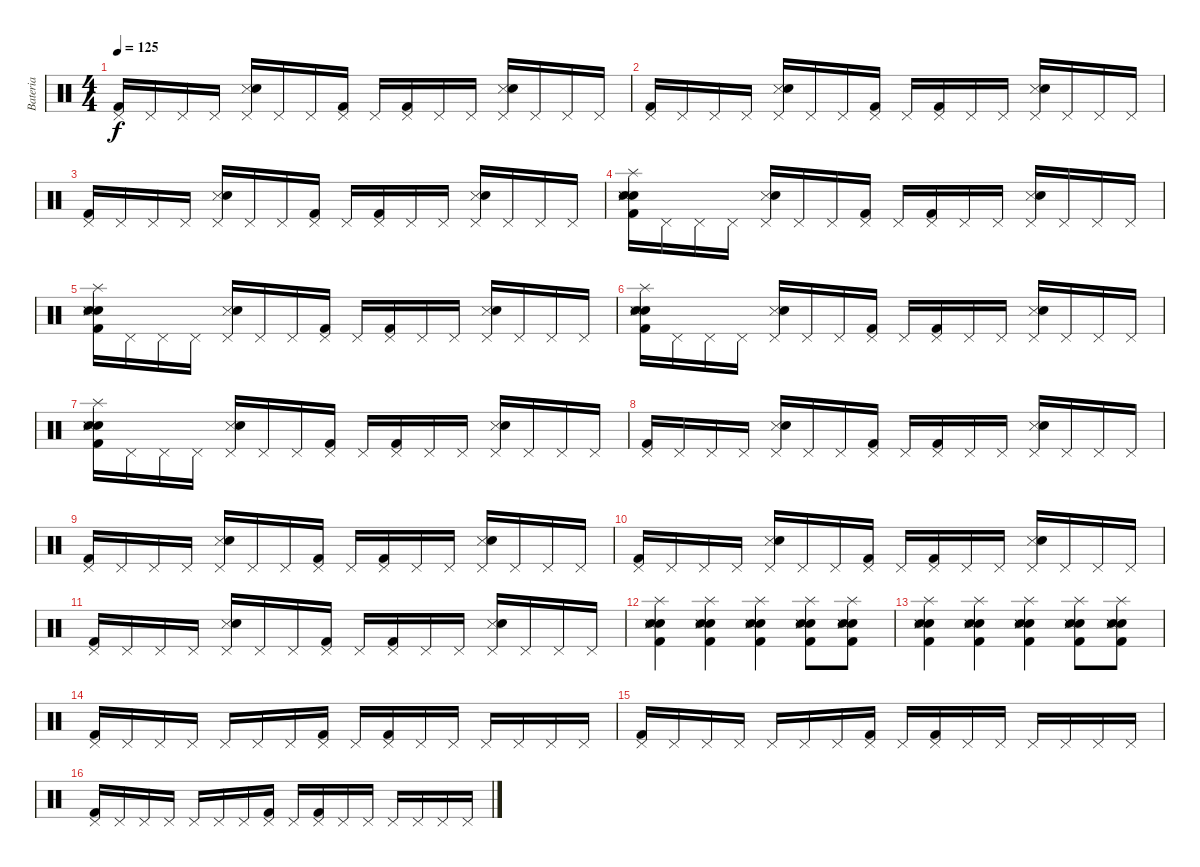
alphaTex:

\track ("Bateria" "Bateria") {instrument percussion}
\staff {score}
\articulation defaults
\ts (4 4)
\tempo 125
\clef neutral
\ks c
("Pedal Hi-Hat (hit)" "Kick (hit) 2").16{dy f} "Pedal Hi-Hat (hit)".16 "Pedal Hi-Hat (hit)".16 "Pedal Hi-Hat (hit)".16 ("Pedal Hi-Hat (hit)" "Snare (side stick) 3" "Snare (hit) 2").16 "Pedal Hi-Hat (hit)".16 "Pedal Hi-Hat (hit)".16 ("Pedal Hi-Hat (hit)" "Kick (hit) 2").16 "Pedal Hi-Hat (hit)".16 ("Pedal Hi-Hat (hit)" "Kick (hit) 2").16 "Pedal Hi-Hat (hit)".16 "Pedal Hi-Hat (hit)".16 ("Pedal Hi-Hat (hit)" "Snare (side stick) 3" "Snare (hit) 2").16 "Pedal Hi-Hat (hit)".16 "Pedal Hi-Hat (hit)".16 "Pedal Hi-Hat (hit)".16 |
("Pedal Hi-Hat (hit)" "Kick (hit) 2").16 "Pedal Hi-Hat (hit)".16 "Pedal Hi-Hat (hit)".16 "Pedal Hi-Hat (hit)".16 ("Pedal Hi-Hat (hit)" "Snare (side stick) 3" "Snare (hit) 2").16 "Pedal Hi-Hat (hit)".16 "Pedal Hi-Hat (hit)".16 ("Pedal Hi-Hat (hit)" "Kick (hit) 2").16 "Pedal Hi-Hat (hit)".16 ("Pedal Hi-Hat (hit)" "Kick (hit) 2").16 "Pedal Hi-Hat (hit)".16 "Pedal Hi-Hat (hit)".16 ("Pedal Hi-Hat (hit)" "Snare (side stick) 3" "Snare (hit) 2").16 "Pedal Hi-Hat (hit)".16 "Pedal Hi-Hat (hit)".16 "Pedal Hi-Hat (hit)".16 |
("Pedal Hi-Hat (hit)" "Kick (hit) 2").16 "Pedal Hi-Hat (hit)".16 "Pedal Hi-Hat (hit)".16 "Pedal Hi-Hat (hit)".16 ("Pedal Hi-Hat (hit)" "Snare (side stick) 3" "Snare (hit) 2").16 "Pedal Hi-Hat (hit)".16 "Pedal Hi-Hat (hit)".16 ("Pedal Hi-Hat (hit)" "Kick (hit) 2").16 "Pedal Hi-Hat (hit)".16 ("Pedal Hi-Hat (hit)" "Kick (hit) 2").16 "Pedal Hi-Hat (hit)".16 "Pedal Hi-Hat (hit)".16 ("Pedal Hi-Hat (hit)" "Snare (side stick) 3" "Snare (hit) 2").16 "Pedal Hi-Hat (hit)".16 "Pedal Hi-Hat (hit)".16 "Pedal Hi-Hat (hit)".16 |
("Splash (hit)" "Snare (hit) 2" "Snare (side stick) 3" "Snare (hit) 2" "Snare (side stick) 3" "Kick (hit) 2").16 "Pedal Hi-Hat (hit)".16 "Pedal Hi-Hat (hit)".16 "Pedal Hi-Hat (hit)".16 ("Pedal Hi-Hat (hit)" "Snare (side stick) 3" "Snare (hit) 2").16 "Pedal Hi-Hat (hit)".16 "Pedal Hi-Hat (hit)".16 ("Pedal Hi-Hat (hit)" "Kick (hit) 2").16 "Pedal Hi-Hat (hit)".16 ("Pedal Hi-Hat (hit)" "Kick (hit) 2").16 "Pedal Hi-Hat (hit)".16 "Pedal Hi-Hat (hit)".16 ("Pedal Hi-Hat (hit)" "Snare (side stick) 3" "Snare (hit) 2").16 "Pedal Hi-Hat (hit)".16 "Pedal Hi-Hat (hit)".16 "Pedal Hi-Hat (hit)".16 |
("Splash (hit)" "Snare (hit) 2" "Snare (side stick) 3" "Snare (hit) 2" "Snare (side stick) 3" "Kick (hit) 2").16 "Pedal Hi-Hat (hit)".16 "Pedal Hi-Hat (hit)".16 "Pedal Hi-Hat (hit)".16 ("Pedal Hi-Hat (hit)" "Snare (side stick) 3" "Snare (hit) 2").16 "Pedal Hi-Hat (hit)".16 "Pedal Hi-Hat (hit)".16 ("Pedal Hi-Hat (hit)" "Kick (hit) 2").16 "Pedal Hi-Hat (hit)".16 ("Pedal Hi-Hat (hit)" "Kick (hit) 2").16 "Pedal Hi-Hat (hit)".16 "Pedal Hi-Hat (hit)".16 ("Pedal Hi-Hat (hit)" "Snare (side stick) 3" "Snare (hit) 2").16 "Pedal Hi-Hat (hit)".16 "Pedal Hi-Hat (hit)".16 "Pedal Hi-Hat (hit)".16 |
("Splash (hit)" "Snare (hit) 2" "Snare (side stick) 3" "Snare (hit) 2" "Snare (side stick) 3" "Kick (hit) 2").16 "Pedal Hi-Hat (hit)".16 "Pedal Hi-Hat (hit)".16 "Pedal Hi-Hat (hit)".16 ("Pedal Hi-Hat (hit)" "Snare (side stick) 3" "Snare (hit) 2").16 "Pedal Hi-Hat (hit)".16 "Pedal Hi-Hat (hit)".16 ("Pedal Hi-Hat (hit)" "Kick (hit) 2").16 "Pedal Hi-Hat (hit)".16 ("Pedal Hi-Hat (hit)" "Kick (hit) 2").16 "Pedal Hi-Hat (hit)".16 "Pedal Hi-Hat (hit)".16 ("Pedal Hi-Hat (hit)" "Snare (side stick) 3" "Snare (hit) 2").16 "Pedal Hi-Hat (hit)".16 "Pedal Hi-Hat (hit)".16 "Pedal Hi-Hat (hit)".16 |
("Splash (hit)" "Snare (hit) 2" "Snare (side stick) 3" "Snare (hit) 2" "Snare (side stick) 3" "Kick (hit) 2").16 "Pedal Hi-Hat (hit)".16 "Pedal Hi-Hat (hit)".16 "Pedal Hi-Hat (hit)".16 ("Pedal Hi-Hat (hit)" "Snare (side stick) 3" "Snare (hit) 2").16 "Pedal Hi-Hat (hit)".16 "Pedal Hi-Hat (hit)".16 ("Pedal Hi-Hat (hit)" "Kick (hit) 2").16 "Pedal Hi-Hat (hit)".16 ("Pedal Hi-Hat (hit)" "Kick (hit) 2").16 "Pedal Hi-Hat (hit)".16 "Pedal Hi-Hat (hit)".16 ("Pedal Hi-Hat (hit)" "Snare (side stick) 3" "Snare (hit) 2").16 "Pedal Hi-Hat (hit)".16 "Pedal Hi-Hat (hit)".16 "Pedal Hi-Hat (hit)".16 |
("Pedal Hi-Hat (hit)" "Kick (hit) 2").16 "Pedal Hi-Hat (hit)".16 "Pedal Hi-Hat (hit)".16 "Pedal Hi-Hat (hit)".16 ("Pedal Hi-Hat (hit)" "Snare (side stick) 3" "Snare (hit) 2").16 "Pedal Hi-Hat (hit)".16 "Pedal Hi-Hat (hit)".16 ("Pedal Hi-Hat (hit)" "Kick (hit) 2").16 "Pedal Hi-Hat (hit)".16 ("Pedal Hi-Hat (hit)" "Kick (hit) 2").16 "Pedal Hi-Hat (hit)".16 "Pedal Hi-Hat (hit)".16 ("Pedal Hi-Hat (hit)" "Snare (side stick) 3" "Snare (hit) 2").16 "Pedal Hi-Hat (hit)".16 "Pedal Hi-Hat (hit)".16 "Pedal Hi-Hat (hit)".16 |
("Pedal Hi-Hat (hit)" "Kick (hit) 2").16 "Pedal Hi-Hat (hit)".16 "Pedal Hi-Hat (hit)".16 "Pedal Hi-Hat (hit)".16 ("Pedal Hi-Hat (hit)" "Snare (side stick) 3" "Snare (hit) 2").16 "Pedal Hi-Hat (hit)".16 "Pedal Hi-Hat (hit)".16 ("Pedal Hi-Hat (hit)" "Kick (hit) 2").16 "Pedal Hi-Hat (hit)".16 ("Pedal Hi-Hat (hit)" "Kick (hit) 2").16 "Pedal Hi-Hat (hit)".16 "Pedal Hi-Hat (hit)".16 ("Pedal Hi-Hat (hit)" "Snare (side stick) 3" "Snare (hit) 2").16 "Pedal Hi-Hat (hit)".16 "Pedal Hi-Hat (hit)".16 "Pedal Hi-Hat (hit)".16 |
("Pedal Hi-Hat (hit)" "Kick (hit) 2").16 "Pedal Hi-Hat (hit)".16 "Pedal Hi-Hat (hit)".16 "Pedal Hi-Hat (hit)".16 ("Pedal Hi-Hat (hit)" "Snare (side stick) 3" "Snare (hit) 2").16 "Pedal Hi-Hat (hit)".16 "Pedal Hi-Hat (hit)".16 ("Pedal Hi-Hat (hit)" "Kick (hit) 2").16 "Pedal Hi-Hat (hit)".16 ("Pedal Hi-Hat (hit)" "Kick (hit) 2").16 "Pedal Hi-Hat (hit)".16 "Pedal Hi-Hat (hit)".16 ("Pedal Hi-Hat (hit)" "Snare (side stick) 3" "Snare (hit) 2").16 "Pedal Hi-Hat (hit)".16 "Pedal Hi-Hat (hit)".16 "Pedal Hi-Hat (hit)".16 |
("Pedal Hi-Hat (hit)" "Kick (hit) 2").16 "Pedal Hi-Hat (hit)".16 "Pedal Hi-Hat (hit)".16 "Pedal Hi-Hat (hit)".16 ("Pedal Hi-Hat (hit)" "Snare (side stick) 3" "Snare (hit) 2").16 "Pedal Hi-Hat (hit)".16 "Pedal Hi-Hat (hit)".16 ("Pedal Hi-Hat (hit)" "Kick (hit) 2").16 "Pedal Hi-Hat (hit)".16 ("Pedal Hi-Hat (hit)" "Kick (hit) 2").16 "Pedal Hi-Hat (hit)".16 "Pedal Hi-Hat (hit)".16 ("Pedal Hi-Hat (hit)" "Snare (side stick) 3" "Snare (hit) 2").16 "Pedal Hi-Hat (hit)".16 "Pedal Hi-Hat (hit)".16 "Pedal Hi-Hat (hit)".16 |
("Splash (hit)" "Snare (hit) 2" "Snare (side stick) 3" "Snare (hit) 2" "Snare (side stick) 3" "Kick (hit) 2").4 ("Splash (hit)" "Snare (hit) 2" "Snare (side stick) 3" "Snare (hit) 2" "Snare (side stick) 3" "Kick (hit) 2").4 ("Splash (hit)" "Snare (hit) 2" "Snare (side stick) 3" "Snare (hit) 2" "Snare (side stick) 3" "Kick (hit) 2").4 ("Splash (hit)" "Snare (hit) 2" "Snare (side stick) 3" "Snare (hit) 2" "Snare (side stick) 3" "Kick (hit) 2").8 ("Splash (hit)" "Snare (hit) 2" "Snare (side stick) 3" "Snare (hit) 2" "Snare (side stick) 3" "Kick (hit) 2").8 |
("Splash (hit)" "Snare (hit) 2" "Snare (side stick) 3" "Snare (hit) 2" "Snare (side stick) 3" "Kick (hit) 2").4 ("Splash (hit)" "Snare (hit) 2" "Snare (side stick) 3" "Snare (hit) 2" "Snare (side stick) 3" "Kick (hit) 2").4 ("Splash (hit)" "Snare (hit) 2" "Snare (side stick) 3" "Snare (hit) 2" "Snare (side stick) 3" "Kick (hit) 2").4 ("Splash (hit)" "Snare (hit) 2" "Snare (side stick) 3" "Snare (hit) 2" "Snare (side stick) 3" "Kick (hit) 2").8 ("Splash (hit)" "Snare (hit) 2" "Snare (side stick) 3" "Snare (hit) 2" "Snare (side stick) 3" "Kick (hit) 2").8 |
("Pedal Hi-Hat (hit)" "Kick (hit) 2").16 "Pedal Hi-Hat (hit)".16 "Pedal Hi-Hat (hit)".16 "Pedal Hi-Hat (hit)".16 "Pedal Hi-Hat (hit)".16 "Pedal Hi-Hat (hit)".16 "Pedal Hi-Hat (hit)".16 ("Pedal Hi-Hat (hit)" "Kick (hit) 2").16 "Pedal Hi-Hat (hit)".16 ("Pedal Hi-Hat (hit)" "Kick (hit) 2").16 "Pedal Hi-Hat (hit)".16 "Pedal Hi-Hat (hit)".16 "Pedal Hi-Hat (hit)".16 "Pedal Hi-Hat (hit)".16 "Pedal Hi-Hat (hit)".16 "Pedal Hi-Hat (hit)".16 |
("Pedal Hi-Hat (hit)" "Kick (hit) 2").16 "Pedal Hi-Hat (hit)".16 "Pedal Hi-Hat (hit)".16 "Pedal Hi-Hat (hit)".16 "Pedal Hi-Hat (hit)".16 "Pedal Hi-Hat (hit)".16 "Pedal Hi-Hat (hit)".16 ("Pedal Hi-Hat (hit)" "Kick (hit) 2").16 "Pedal Hi-Hat (hit)".16 ("Pedal Hi-Hat (hit)" "Kick (hit) 2").16 "Pedal Hi-Hat (hit)".16 "Pedal Hi-Hat (hit)".16 "Pedal Hi-Hat (hit)".16 "Pedal Hi-Hat (hit)".16 "Pedal Hi-Hat (hit)".16 "Pedal Hi-Hat (hit)".16 |
("Pedal Hi-Hat (hit)" "Kick (hit) 2").16 "Pedal Hi-Hat (hit)".16 "Pedal Hi-Hat (hit)".16 "Pedal Hi-Hat (hit)".16 "Pedal Hi-Hat (hit)".16 "Pedal Hi-Hat (hit)".16 "Pedal Hi-Hat (hit)".16 ("Pedal Hi-Hat (hit)" "Kick (hit) 2").16 "Pedal Hi-Hat (hit)".16 ("Pedal Hi-Hat (hit)" "Kick (hit) 2").16 "Pedal Hi-Hat (hit)".16 "Pedal Hi-Hat (hit)".16 "Pedal Hi-Hat (hit)".16 "Pedal Hi-Hat (hit)".16 "Pedal Hi-Hat (hit)".16 "Pedal Hi-Hat (hit)".16
